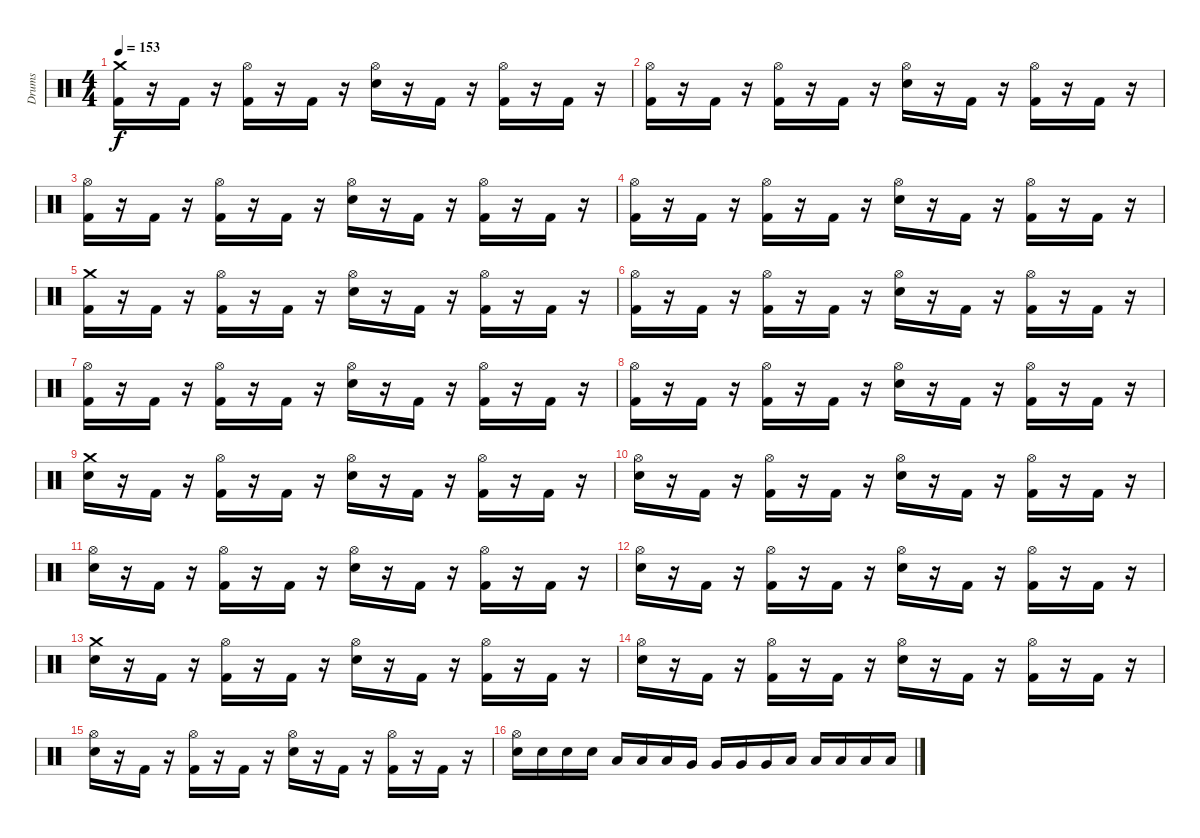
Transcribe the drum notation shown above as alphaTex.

\track ("Drums" "Drums") {instrument percussion}
\staff {score}
\articulation defaults
\ts (4 4)
\tempo 153
\clef neutral
\ks c
("Crash medium (hit)" "Kick (hit) 2").16{dy f} r.16 "Kick (hit) 2".16 r.16 ("Hi-Hat (open)" "Kick (hit) 2").16 r.16 "Kick (hit) 2".16 r.16 ("Hi-Hat (open)" "Electric Snare (hit)").16 r.16 "Kick (hit) 2".16 r.16 ("Hi-Hat (open)" "Kick (hit) 2").16 r.16 "Kick (hit) 2".16 r.16 |
("Hi-Hat (open)" "Kick (hit) 2").16 r.16 "Kick (hit) 2".16 r.16 ("Hi-Hat (open)" "Kick (hit) 2").16 r.16 "Kick (hit) 2".16 r.16 ("Hi-Hat (open)" "Electric Snare (hit)").16 r.16 "Kick (hit) 2".16 r.16 ("Hi-Hat (open)" "Kick (hit) 2").16 r.16 "Kick (hit) 2".16 r.16 |
("Hi-Hat (open)" "Kick (hit) 2").16 r.16 "Kick (hit) 2".16 r.16 ("Hi-Hat (open)" "Kick (hit) 2").16 r.16 "Kick (hit) 2".16 r.16 ("Hi-Hat (open)" "Electric Snare (hit)").16 r.16 "Kick (hit) 2".16 r.16 ("Hi-Hat (open)" "Kick (hit) 2").16 r.16 "Kick (hit) 2".16 r.16 |
("Hi-Hat (open)" "Kick (hit) 2").16 r.16 "Kick (hit) 2".16 r.16 ("Hi-Hat (open)" "Kick (hit) 2").16 r.16 "Kick (hit) 2".16 r.16 ("Hi-Hat (open)" "Electric Snare (hit)").16 r.16 "Kick (hit) 2".16 r.16 ("Hi-Hat (open)" "Kick (hit) 2").16 r.16 "Kick (hit) 2".16 r.16 |
("Crash medium (hit)" "Kick (hit) 2").16 r.16 "Kick (hit) 2".16 r.16 ("Hi-Hat (open)" "Kick (hit) 2").16 r.16 "Kick (hit) 2".16 r.16 ("Hi-Hat (open)" "Electric Snare (hit)").16 r.16 "Kick (hit) 2".16 r.16 ("Hi-Hat (open)" "Kick (hit) 2").16 r.16 "Kick (hit) 2".16 r.16 |
("Hi-Hat (open)" "Kick (hit) 2").16 r.16 "Kick (hit) 2".16 r.16 ("Hi-Hat (open)" "Kick (hit) 2").16 r.16 "Kick (hit) 2".16 r.16 ("Hi-Hat (open)" "Electric Snare (hit)").16 r.16 "Kick (hit) 2".16 r.16 ("Hi-Hat (open)" "Kick (hit) 2").16 r.16 "Kick (hit) 2".16 r.16 |
("Hi-Hat (open)" "Kick (hit) 2").16 r.16 "Kick (hit) 2".16 r.16 ("Hi-Hat (open)" "Kick (hit) 2").16 r.16 "Kick (hit) 2".16 r.16 ("Hi-Hat (open)" "Electric Snare (hit)").16 r.16 "Kick (hit) 2".16 r.16 ("Hi-Hat (open)" "Kick (hit) 2").16 r.16 "Kick (hit) 2".16 r.16 |
("Hi-Hat (open)" "Kick (hit) 2").16 r.16 "Kick (hit) 2".16 r.16 ("Hi-Hat (open)" "Kick (hit) 2").16 r.16 "Kick (hit) 2".16 r.16 ("Hi-Hat (open)" "Electric Snare (hit)").16 r.16 "Kick (hit) 2".16 r.16 ("Hi-Hat (open)" "Kick (hit) 2").16 r.16 "Kick (hit) 2".16 r.16 |
("Crash medium (hit)" "Electric Snare (hit)").16 r.16 "Kick (hit) 2".16 r.16 ("Hi-Hat (open)" "Kick (hit) 2").16 r.16 "Kick (hit) 2".16 r.16 ("Hi-Hat (open)" "Electric Snare (hit)").16 r.16 "Kick (hit) 2".16 r.16 ("Hi-Hat (open)" "Kick (hit) 2").16 r.16 "Kick (hit) 2".16 r.16 |
("Hi-Hat (open)" "Electric Snare (hit)").16 r.16 "Kick (hit) 2".16 r.16 ("Hi-Hat (open)" "Kick (hit) 2").16 r.16 "Kick (hit) 2".16 r.16 ("Hi-Hat (open)" "Electric Snare (hit)").16 r.16 "Kick (hit) 2".16 r.16 ("Hi-Hat (open)" "Kick (hit) 2").16 r.16 "Kick (hit) 2".16 r.16 |
("Hi-Hat (open)" "Electric Snare (hit)").16 r.16 "Kick (hit) 2".16 r.16 ("Hi-Hat (open)" "Kick (hit) 2").16 r.16 "Kick (hit) 2".16 r.16 ("Hi-Hat (open)" "Electric Snare (hit)").16 r.16 "Kick (hit) 2".16 r.16 ("Hi-Hat (open)" "Kick (hit) 2").16 r.16 "Kick (hit) 2".16 r.16 |
("Hi-Hat (open)" "Electric Snare (hit)").16 r.16 "Kick (hit) 2".16 r.16 ("Hi-Hat (open)" "Kick (hit) 2").16 r.16 "Kick (hit) 2".16 r.16 ("Hi-Hat (open)" "Electric Snare (hit)").16 r.16 "Kick (hit) 2".16 r.16 ("Hi-Hat (open)" "Kick (hit) 2").16 r.16 "Kick (hit) 2".16 r.16 |
("Crash medium (hit)" "Electric Snare (hit)").16 r.16 "Kick (hit) 2".16 r.16 ("Hi-Hat (open)" "Kick (hit) 2").16 r.16 "Kick (hit) 2".16 r.16 ("Hi-Hat (open)" "Electric Snare (hit)").16 r.16 "Kick (hit) 2".16 r.16 ("Hi-Hat (open)" "Kick (hit) 2").16 r.16 "Kick (hit) 2".16 r.16 |
("Hi-Hat (open)" "Electric Snare (hit)").16 r.16 "Kick (hit) 2".16 r.16 ("Hi-Hat (open)" "Kick (hit) 2").16 r.16 "Kick (hit) 2".16 r.16 ("Hi-Hat (open)" "Electric Snare (hit)").16 r.16 "Kick (hit) 2".16 r.16 ("Hi-Hat (open)" "Kick (hit) 2").16 r.16 "Kick (hit) 2".16 r.16 |
("Hi-Hat (open)" "Electric Snare (hit)").16 r.16 "Kick (hit) 2".16 r.16 ("Hi-Hat (open)" "Kick (hit) 2").16 r.16 "Kick (hit) 2".16 r.16 ("Hi-Hat (open)" "Electric Snare (hit)").16 r.16 "Kick (hit) 2".16 r.16 ("Hi-Hat (open)" "Kick (hit) 2").16 r.16 "Kick (hit) 2".16 r.16 |
("Hi-Hat (open)" "Electric Snare (hit)").16 "Electric Snare (hit)".16 "Electric Snare (hit)".16 "Electric Snare (hit)".16 "Low Tom (hit)".16 "Low Tom (hit)".16 "Low Tom (hit)".16 "Very Low Tom (hit)".16 "Very Low Tom (hit)".16 "Very Low Tom (hit)".16 "Very Low Tom (hit)".16 "Low Floor Tom (hit)".16 "Low Floor Tom (hit)".16 "Low Floor Tom (hit)".16 "Low Floor Tom (hit)".16 "Low Floor Tom (hit)".16
